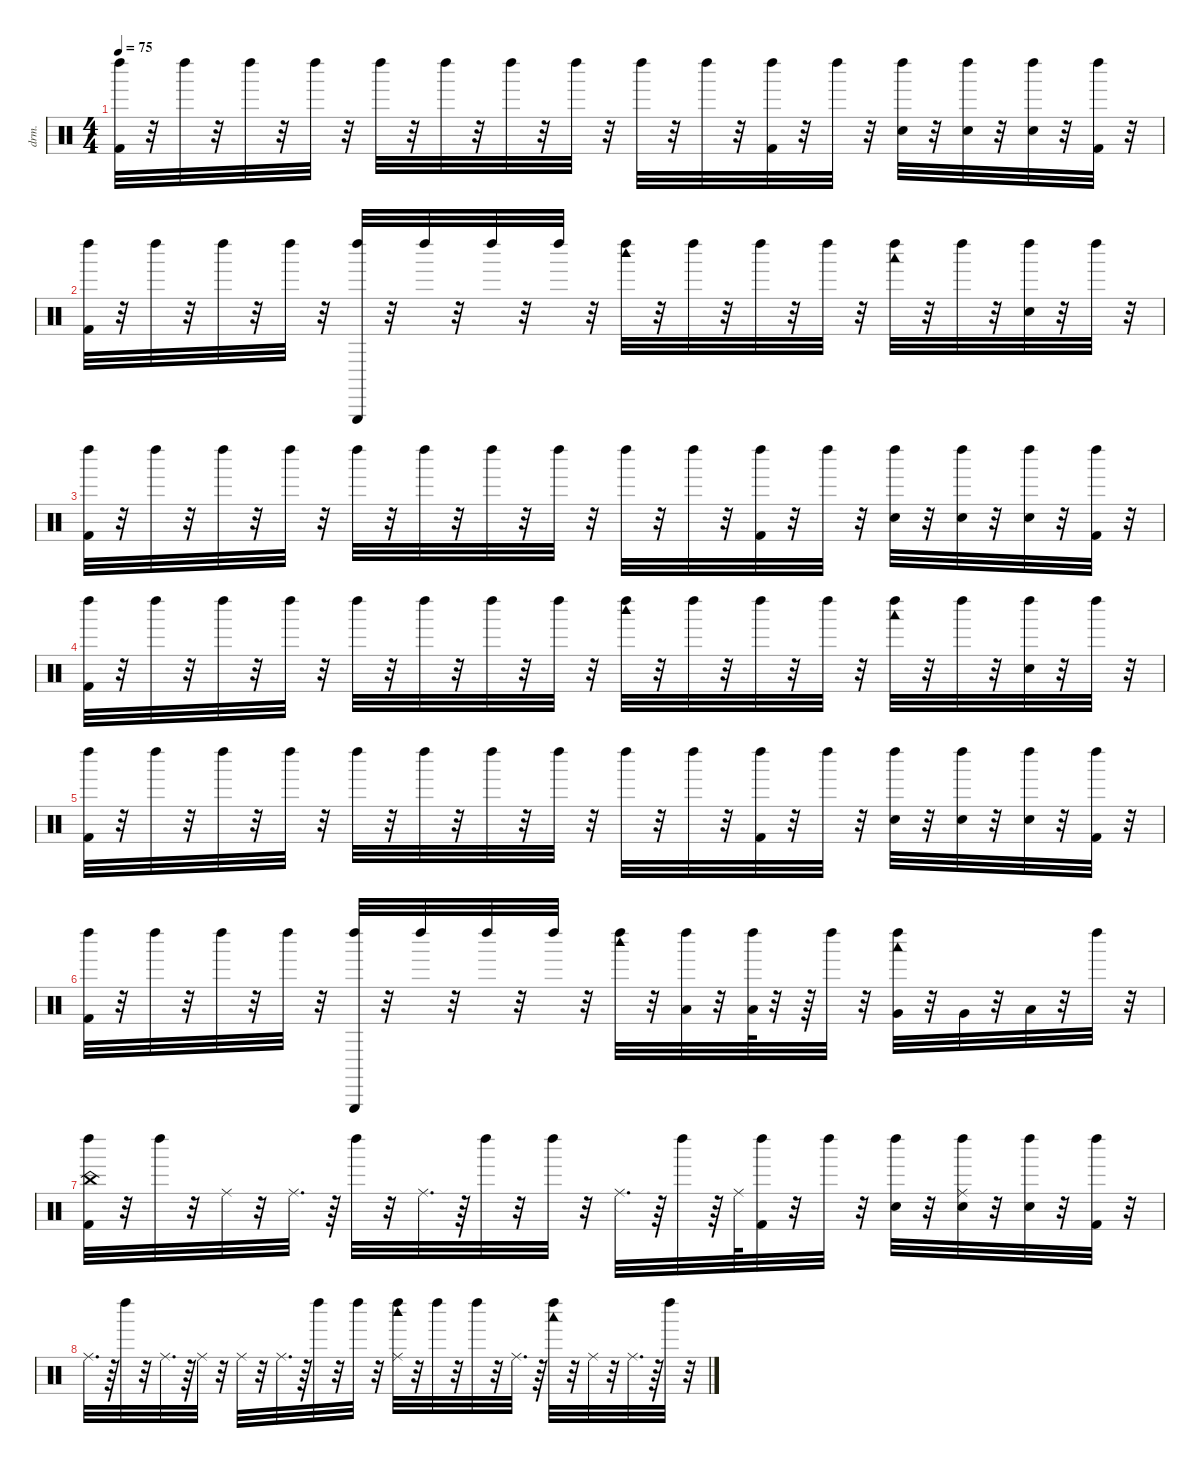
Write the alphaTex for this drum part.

\defaultSystemsLayout 4
\hideDynamics
\bracketExtendMode nobrackets
\otherSystemsTrackNameOrientation horizontal
\track ("Drums" "drm.") {instrument percussion}
\staff {score}
\articulation defaults
\ts (4 4)
\tempo 75
\clef neutral
\ks c
("Kick (hit) 2" "Left Maraca (hit)").32{dy f} r.32 "Left Maraca (hit)".32 r.32 "Left Maraca (hit)".32 r.32 "Left Maraca (hit)".32 r.32 "Left Maraca (hit)".32 r.32 "Left Maraca (hit)".32 r.32 "Left Maraca (hit)".32 r.32 "Left Maraca (hit)".32 r.32 "Left Maraca (hit)".32 r.32 "Left Maraca (hit)".32 r.32 ("Kick (hit) 2" "Left Maraca (hit)").32 r.32 "Left Maraca (hit)".32 r.32 ("Snare (hit) 2" "Left Maraca (hit)").32 r.32 ("Snare (hit) 2" "Left Maraca (hit)").32 r.32 ("Snare (hit) 2" "Left Maraca (hit)").32 r.32 ("Kick (hit) 2" "Left Maraca (hit)").32 r.32 |
("Kick (hit) 2" "Left Maraca (hit)").32 r.32 "Left Maraca (hit)".32 r.32 "Left Maraca (hit)".32 r.32 "Left Maraca (hit)".32 r.32 ("Triangle (hit)" "Left Maraca (hit)").32 r.32 "Left Maraca (hit)".32 r.32 "Left Maraca (hit)".32 r.32 "Left Maraca (hit)".32 r.32 ("Woodblock high (hit)" "Left Maraca (hit)").32 r.32 "Left Maraca (hit)".32 r.32 "Left Maraca (hit)".32 r.32 "Left Maraca (hit)".32 r.32 ("Woodblock low (hit)" "Left Maraca (hit)").32 r.32 "Left Maraca (hit)".32 r.32 ("Hand Clap (hit)" "Left Maraca (hit)").32 r.32 "Left Maraca (hit)".32 r.32 |
("Kick (hit) 2" "Left Maraca (hit)").32 r.32 "Left Maraca (hit)".32 r.32 "Left Maraca (hit)".32 r.32 "Left Maraca (hit)".32 r.32 "Left Maraca (hit)".32 r.32 "Left Maraca (hit)".32 r.32 "Left Maraca (hit)".32 r.32 "Left Maraca (hit)".32 r.32 "Left Maraca (hit)".32 r.32 "Left Maraca (hit)".32 r.32 ("Kick (hit) 2" "Left Maraca (hit)").32 r.32 "Left Maraca (hit)".32 r.32 ("Snare (hit) 2" "Left Maraca (hit)").32 r.32 ("Snare (hit) 2" "Left Maraca (hit)").32 r.32 ("Snare (hit) 2" "Left Maraca (hit)").32 r.32 ("Kick (hit) 2" "Left Maraca (hit)").32 r.32 |
("Kick (hit) 2" "Left Maraca (hit)").32 r.32 "Left Maraca (hit)".32 r.32 "Left Maraca (hit)".32 r.32 "Left Maraca (hit)".32 r.32 "Left Maraca (hit)".32 r.32 "Left Maraca (hit)".32 r.32 "Left Maraca (hit)".32 r.32 "Left Maraca (hit)".32 r.32 ("Woodblock high (hit)" "Left Maraca (hit)").32 r.32 "Left Maraca (hit)".32 r.32 "Left Maraca (hit)".32 r.32 "Left Maraca (hit)".32 r.32 ("Woodblock low (hit)" "Left Maraca (hit)").32 r.32 "Left Maraca (hit)".32 r.32 ("Hand Clap (hit)" "Left Maraca (hit)").32 r.32 "Left Maraca (hit)".32 r.32 |
("Kick (hit) 2" "Left Maraca (hit)").32 r.32 "Left Maraca (hit)".32 r.32 "Left Maraca (hit)".32 r.32 "Left Maraca (hit)".32 r.32 "Left Maraca (hit)".32 r.32 "Left Maraca (hit)".32 r.32 "Left Maraca (hit)".32 r.32 "Left Maraca (hit)".32 r.32 "Left Maraca (hit)".32 r.32 "Left Maraca (hit)".32 r.32 ("Kick (hit) 2" "Left Maraca (hit)").32 r.32 "Left Maraca (hit)".32 r.32 ("Snare (hit) 2" "Left Maraca (hit)").32 r.32 ("Snare (hit) 2" "Left Maraca (hit)").32 r.32 ("Snare (hit) 2" "Left Maraca (hit)").32 r.32 ("Kick (hit) 2" "Left Maraca (hit)").32 r.32 |
("Kick (hit) 2" "Left Maraca (hit)").32 r.32 "Left Maraca (hit)".32 r.32 "Left Maraca (hit)".32 r.32 "Left Maraca (hit)".32 r.32 ("Triangle (hit)" "Left Maraca (hit)").32 r.32 "Left Maraca (hit)".32 r.32 "Left Maraca (hit)".32 r.32 "Left Maraca (hit)".32 r.32 ("Woodblock high (hit)" "Left Maraca (hit)").32 r.32 ("Left Maraca (hit)" "Low Tom (hit)").32 r.32 ("Left Maraca (hit)" "Low Tom (hit)").64 r.32 r.64 "Left Maraca (hit)".32 r.32 ("Very Low Tom (hit)" "Woodblock low (hit)" "Left Maraca (hit)").32 r.32 "Very Low Tom (hit)".32 r.32 "Low Floor Tom (hit)".32 r.32 "Left Maraca (hit)".32 r.32 |
("China (hit)" "Kick (hit) 2" "Left Maraca (hit)").32 r.32 "Left Maraca (hit)".32 r.32 "Ride (middle)".32 r.32 "Ride (middle)".32{d} r.64 "Left Maraca (hit)".32 r.32 "Ride (middle)".32{d} r.64 "Left Maraca (hit)".32 r.32 "Left Maraca (hit)".32 r.32 "Ride (middle)".32{d} r.64 "Left Maraca (hit)".32 r.64 "Ride (middle)".64 ("Kick (hit) 2" "Left Maraca (hit)").32 r.32 "Left Maraca (hit)".32 r.32 ("Snare (hit) 2" "Left Maraca (hit)").32 r.32 ("Ride (middle)" "Snare (hit) 2" "Left Maraca (hit)").32 r.32 ("Snare (hit) 2" "Left Maraca (hit)").32 r.32 ("Kick (hit) 2" "Left Maraca (hit)").32 r.32 |
"Ride (middle)".32{d} r.64 "Left Maraca (hit)".32 r.32 "Ride (middle)".32{d} r.64 "Ride (middle)".32 r.32 "Ride (middle)".32 r.32 "Ride (middle)".32{d} r.64 "Left Maraca (hit)".32 r.32 "Left Maraca (hit)".32 r.32 ("Ride (middle)" "Woodblock high (hit)" "Left Maraca (hit)").32 r.32 "Left Maraca (hit)".32 r.32 "Left Maraca (hit)".32 r.32 "Ride (middle)".32{d} r.64 ("Woodblock low (hit)" "Left Maraca (hit)").32 r.32 "Ride (middle)".32 r.32 "Ride (middle)".32{d} r.64 "Left Maraca (hit)".32 r.32
